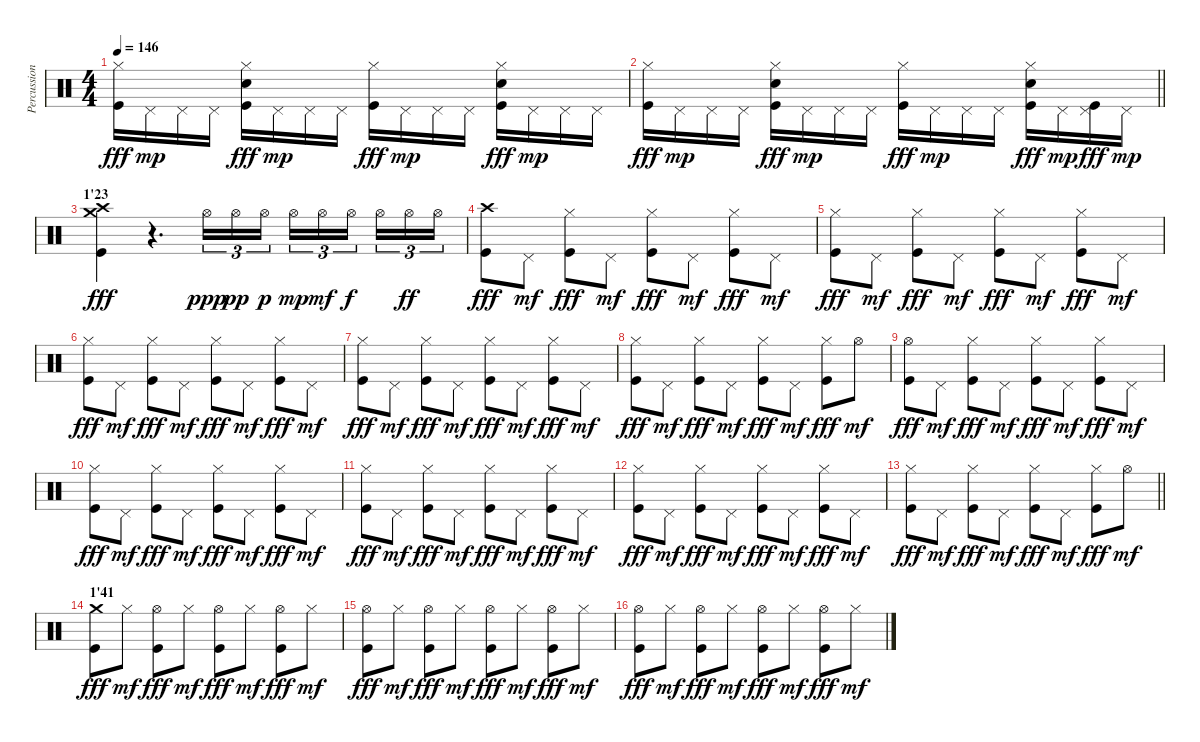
\track ("Percussions" "Percussion") {instrument percussion}
\staff {score}
\articulation defaults
\ts (4 4)
\tempo 146
\clef neutral
\ks c
("Hi-Hat (closed)" "Kick (hit)").16{dy fff} "Pedal Hi-Hat (hit)".16{dy mp} "Pedal Hi-Hat (hit)".16 "Pedal Hi-Hat (hit)".16 ("Hi-Hat (closed)" "Electric Snare (hit)" "Kick (hit)").16{dy fff} "Pedal Hi-Hat (hit)".16{dy mp} "Pedal Hi-Hat (hit)".16 "Pedal Hi-Hat (hit)".16 ("Hi-Hat (closed)" "Kick (hit)").16{dy fff} "Pedal Hi-Hat (hit)".16{dy mp} "Pedal Hi-Hat (hit)".16 "Pedal Hi-Hat (hit)".16 ("Hi-Hat (closed)" "Electric Snare (hit)" "Kick (hit)").16{dy fff} "Pedal Hi-Hat (hit)".16{dy mp} "Pedal Hi-Hat (hit)".16 "Pedal Hi-Hat (hit)".16 |
\barLineRight lightlight
("Hi-Hat (closed)" "Kick (hit)").16{dy fff} "Pedal Hi-Hat (hit)".16{dy mp} "Pedal Hi-Hat (hit)".16 "Pedal Hi-Hat (hit)".16 ("Hi-Hat (closed)" "Electric Snare (hit)" "Kick (hit)").16{dy fff} "Pedal Hi-Hat (hit)".16{dy mp} "Pedal Hi-Hat (hit)".16 "Pedal Hi-Hat (hit)".16 ("Hi-Hat (closed)" "Kick (hit)").16{dy fff} "Pedal Hi-Hat (hit)".16{dy mp} "Pedal Hi-Hat (hit)".16 "Pedal Hi-Hat (hit)".16 ("Hi-Hat (closed)" "Electric Snare (hit)" "Kick (hit)").16{dy fff} "Pedal Hi-Hat (hit)".16{dy mp} ("Pedal Hi-Hat (hit)" "Kick (hit)").16{dy fff} "Pedal Hi-Hat (hit)".16{dy mp} |
\section ("" "1'23")
("Crash high (hit)" "Crash medium (hit)" "Kick (hit)").4{dy fff} r.4{d} "Hi-Hat (open)".16{tu (3 2) dy ppp} "Hi-Hat (open)".16{tu (3 2) dy pp} "Hi-Hat (open)".16{tu (3 2) dy p} "Hi-Hat (open)".16{tu (3 2) dy mp} "Hi-Hat (open)".16{tu (3 2) dy mf} "Hi-Hat (open)".16{tu (3 2) dy f beam splitsecondary} "Hi-Hat (open)".16{tu (3 2)} "Hi-Hat (open)".16{tu (3 2) dy ff} "Hi-Hat (open)".16{tu (3 2)} |
("Crash high (hit)" "Kick (hit)").8{dy fff} "Pedal Hi-Hat (hit)".8{dy mf} ("Hi-Hat (closed)" "Kick (hit)").8{dy fff} "Pedal Hi-Hat (hit)".8{dy mf} ("Hi-Hat (closed)" "Kick (hit)").8{dy fff} "Pedal Hi-Hat (hit)".8{dy mf} ("Hi-Hat (closed)" "Kick (hit)").8{dy fff} "Pedal Hi-Hat (hit)".8{dy mf} |
("Hi-Hat (closed)" "Kick (hit)").8{dy fff} "Pedal Hi-Hat (hit)".8{dy mf} ("Hi-Hat (closed)" "Kick (hit)").8{dy fff} "Pedal Hi-Hat (hit)".8{dy mf} ("Hi-Hat (closed)" "Kick (hit)").8{dy fff} "Pedal Hi-Hat (hit)".8{dy mf} ("Hi-Hat (closed)" "Kick (hit)").8{dy fff} "Pedal Hi-Hat (hit)".8{dy mf} |
("Hi-Hat (closed)" "Kick (hit)").8{dy fff} "Pedal Hi-Hat (hit)".8{dy mf} ("Hi-Hat (closed)" "Kick (hit)").8{dy fff} "Pedal Hi-Hat (hit)".8{dy mf} ("Hi-Hat (closed)" "Kick (hit)").8{dy fff} "Pedal Hi-Hat (hit)".8{dy mf} ("Hi-Hat (closed)" "Kick (hit)").8{dy fff} "Pedal Hi-Hat (hit)".8{dy mf} |
("Hi-Hat (closed)" "Kick (hit)").8{dy fff} "Pedal Hi-Hat (hit)".8{dy mf} ("Hi-Hat (closed)" "Kick (hit)").8{dy fff} "Pedal Hi-Hat (hit)".8{dy mf} ("Hi-Hat (closed)" "Kick (hit)").8{dy fff} "Pedal Hi-Hat (hit)".8{dy mf} ("Hi-Hat (closed)" "Kick (hit)").8{dy fff} "Pedal Hi-Hat (hit)".8{dy mf} |
("Hi-Hat (closed)" "Kick (hit)").8{dy fff} "Pedal Hi-Hat (hit)".8{dy mf} ("Hi-Hat (closed)" "Kick (hit)").8{dy fff} "Pedal Hi-Hat (hit)".8{dy mf} ("Hi-Hat (closed)" "Kick (hit)").8{dy fff} "Pedal Hi-Hat (hit)".8{dy mf} ("Hi-Hat (closed)" "Kick (hit)").8{dy fff} "Hi-Hat (open)".8{dy mf} |
("Hi-Hat (open)" "Kick (hit)").8{dy fff} "Pedal Hi-Hat (hit)".8{dy mf} ("Hi-Hat (closed)" "Kick (hit)").8{dy fff} "Pedal Hi-Hat (hit)".8{dy mf} ("Hi-Hat (closed)" "Kick (hit)").8{dy fff} "Pedal Hi-Hat (hit)".8{dy mf} ("Hi-Hat (closed)" "Kick (hit)").8{dy fff} "Pedal Hi-Hat (hit)".8{dy mf} |
("Hi-Hat (closed)" "Kick (hit)").8{dy fff} "Pedal Hi-Hat (hit)".8{dy mf} ("Hi-Hat (closed)" "Kick (hit)").8{dy fff} "Pedal Hi-Hat (hit)".8{dy mf} ("Hi-Hat (closed)" "Kick (hit)").8{dy fff} "Pedal Hi-Hat (hit)".8{dy mf} ("Hi-Hat (closed)" "Kick (hit)").8{dy fff} "Pedal Hi-Hat (hit)".8{dy mf} |
("Hi-Hat (closed)" "Kick (hit)").8{dy fff} "Pedal Hi-Hat (hit)".8{dy mf} ("Hi-Hat (closed)" "Kick (hit)").8{dy fff} "Pedal Hi-Hat (hit)".8{dy mf} ("Hi-Hat (closed)" "Kick (hit)").8{dy fff} "Pedal Hi-Hat (hit)".8{dy mf} ("Hi-Hat (closed)" "Kick (hit)").8{dy fff} "Pedal Hi-Hat (hit)".8{dy mf} |
("Hi-Hat (closed)" "Kick (hit)").8{dy fff} "Pedal Hi-Hat (hit)".8{dy mf} ("Hi-Hat (closed)" "Kick (hit)").8{dy fff} "Pedal Hi-Hat (hit)".8{dy mf} ("Hi-Hat (closed)" "Kick (hit)").8{dy fff} "Pedal Hi-Hat (hit)".8{dy mf} ("Hi-Hat (closed)" "Kick (hit)").8{dy fff} "Pedal Hi-Hat (hit)".8{dy mf} |
\barLineRight lightlight
("Hi-Hat (closed)" "Kick (hit)").8{dy fff} "Pedal Hi-Hat (hit)".8{dy mf} ("Hi-Hat (closed)" "Kick (hit)").8{dy fff} "Pedal Hi-Hat (hit)".8{dy mf} ("Hi-Hat (closed)" "Kick (hit)").8{dy fff} "Pedal Hi-Hat (hit)".8{dy mf} ("Hi-Hat (closed)" "Kick (hit)").8{dy fff} "Hi-Hat (open)".8{dy mf} |
\section ("" "1'41")
("Crash medium (hit)" "Kick (hit)").8{dy fff} "Hi-Hat (closed)".8{dy mf} ("Hi-Hat (open)" "Kick (hit)").8{dy fff} "Hi-Hat (closed)".8{dy mf} ("Hi-Hat (open)" "Kick (hit)").8{dy fff} "Hi-Hat (closed)".8{dy mf} ("Hi-Hat (open)" "Kick (hit)").8{dy fff} "Hi-Hat (closed)".8{dy mf} |
("Hi-Hat (open)" "Kick (hit)").8{dy fff} "Hi-Hat (closed)".8{dy mf} ("Hi-Hat (open)" "Kick (hit)").8{dy fff} "Hi-Hat (closed)".8{dy mf} ("Hi-Hat (open)" "Kick (hit)").8{dy fff} "Hi-Hat (closed)".8{dy mf} ("Hi-Hat (open)" "Kick (hit)").8{dy fff} "Hi-Hat (closed)".8{dy mf} |
("Hi-Hat (open)" "Kick (hit)").8{dy fff} "Hi-Hat (closed)".8{dy mf} ("Hi-Hat (open)" "Kick (hit)").8{dy fff} "Hi-Hat (closed)".8{dy mf} ("Hi-Hat (open)" "Kick (hit)").8{dy fff} "Hi-Hat (closed)".8{dy mf} ("Hi-Hat (open)" "Kick (hit)").8{dy fff} "Hi-Hat (closed)".8{dy mf}
